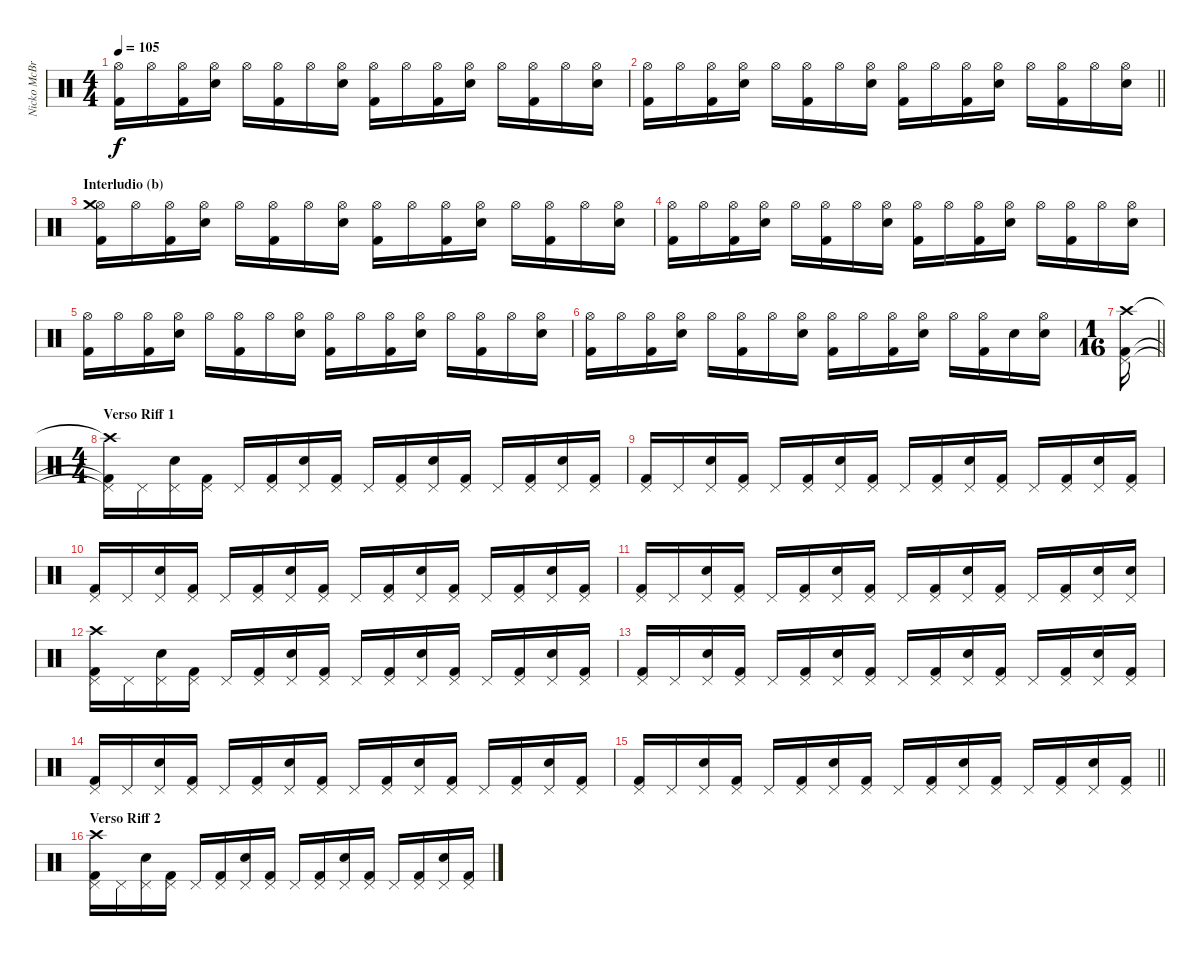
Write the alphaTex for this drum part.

\track ("Nicko McBrain" "Nicko McBr") {instrument percussion}
\staff {score}
\articulation defaults
\ts (4 4)
\tempo 105
\clef neutral
\ks c
("Kick (hit) 2" "Hi-Hat (open)").16{dy f} "Hi-Hat (open)".16 ("Kick (hit) 2" "Hi-Hat (open)").16 ("Snare (hit) 2" "Hi-Hat (open)").16 "Hi-Hat (open)".16 ("Kick (hit) 2" "Hi-Hat (open)").16 "Hi-Hat (open)".16 ("Snare (hit) 2" "Hi-Hat (open)").16 ("Kick (hit) 2" "Hi-Hat (open)").16 "Hi-Hat (open)".16 ("Kick (hit) 2" "Hi-Hat (open)").16 ("Snare (hit) 2" "Hi-Hat (open)").16 "Hi-Hat (open)".16 ("Kick (hit) 2" "Hi-Hat (open)").16 "Hi-Hat (open)".16 ("Snare (hit) 2" "Hi-Hat (open)").16 |
\barLineRight lightlight
("Kick (hit) 2" "Hi-Hat (open)").16 "Hi-Hat (open)".16 ("Kick (hit) 2" "Hi-Hat (open)").16 ("Snare (hit) 2" "Hi-Hat (open)").16 "Hi-Hat (open)".16 ("Kick (hit) 2" "Hi-Hat (open)").16 "Hi-Hat (open)".16 ("Snare (hit) 2" "Hi-Hat (open)").16 ("Kick (hit) 2" "Hi-Hat (open)").16 "Hi-Hat (open)".16 ("Kick (hit) 2" "Hi-Hat (open)").16 ("Snare (hit) 2" "Hi-Hat (open)").16 "Hi-Hat (open)".16 ("Kick (hit) 2" "Hi-Hat (open)").16 "Hi-Hat (open)".16 ("Snare (hit) 2" "Hi-Hat (open)").16 |
\section ("" "Interludio (b)")
("Kick (hit) 2" "Hi-Hat (open)" "Crash medium (hit)").16 "Hi-Hat (open)".16 ("Kick (hit) 2" "Hi-Hat (open)").16 ("Snare (hit) 2" "Hi-Hat (open)").16 "Hi-Hat (open)".16 ("Kick (hit) 2" "Hi-Hat (open)").16 "Hi-Hat (open)".16 ("Snare (hit) 2" "Hi-Hat (open)").16 ("Kick (hit) 2" "Hi-Hat (open)").16 "Hi-Hat (open)".16 ("Kick (hit) 2" "Hi-Hat (open)").16 ("Snare (hit) 2" "Hi-Hat (open)").16 "Hi-Hat (open)".16 ("Kick (hit) 2" "Hi-Hat (open)").16 "Hi-Hat (open)".16 ("Snare (hit) 2" "Hi-Hat (open)").16 |
("Kick (hit) 2" "Hi-Hat (open)").16 "Hi-Hat (open)".16 ("Kick (hit) 2" "Hi-Hat (open)").16 ("Snare (hit) 2" "Hi-Hat (open)").16 "Hi-Hat (open)".16 ("Kick (hit) 2" "Hi-Hat (open)").16 "Hi-Hat (open)".16 ("Snare (hit) 2" "Hi-Hat (open)").16 ("Kick (hit) 2" "Hi-Hat (open)").16 "Hi-Hat (open)".16 ("Kick (hit) 2" "Hi-Hat (open)").16 ("Snare (hit) 2" "Hi-Hat (open)").16 "Hi-Hat (open)".16 ("Kick (hit) 2" "Hi-Hat (open)").16 "Hi-Hat (open)".16 ("Snare (hit) 2" "Hi-Hat (open)").16 |
("Kick (hit) 2" "Hi-Hat (open)").16 "Hi-Hat (open)".16 ("Kick (hit) 2" "Hi-Hat (open)").16 ("Snare (hit) 2" "Hi-Hat (open)").16 "Hi-Hat (open)".16 ("Kick (hit) 2" "Hi-Hat (open)").16 "Hi-Hat (open)".16 ("Snare (hit) 2" "Hi-Hat (open)").16 ("Kick (hit) 2" "Hi-Hat (open)").16 "Hi-Hat (open)".16 ("Kick (hit) 2" "Hi-Hat (open)").16 ("Snare (hit) 2" "Hi-Hat (open)").16 "Hi-Hat (open)".16 ("Kick (hit) 2" "Hi-Hat (open)").16 "Hi-Hat (open)".16 ("Snare (hit) 2" "Hi-Hat (open)").16 |
("Kick (hit) 2" "Hi-Hat (open)").16 "Hi-Hat (open)".16 ("Kick (hit) 2" "Hi-Hat (open)").16 ("Snare (hit) 2" "Hi-Hat (open)").16 "Hi-Hat (open)".16 ("Kick (hit) 2" "Hi-Hat (open)").16 "Hi-Hat (open)".16 ("Snare (hit) 2" "Hi-Hat (open)").16 ("Kick (hit) 2" "Hi-Hat (open)").16 "Hi-Hat (open)".16 ("Kick (hit) 2" "Hi-Hat (open)").16 ("Snare (hit) 2" "Hi-Hat (open)").16 "Hi-Hat (open)".16 ("Kick (hit) 2" "Hi-Hat (open)").16 "Snare (hit) 2".16 ("Snare (hit) 2" "Hi-Hat (open)").16 |
\ts (1 16)
\barLineRight lightlight
("Kick (hit) 2" "Pedal Hi-Hat (hit)" "Crash high (hit)").16 |
\ts (4 4)
\section ("" "Verso Riff 1")
("Kick (hit) 2"{t} "Pedal Hi-Hat (hit)"{t} "Crash high (hit)"{t}).16 "Pedal Hi-Hat (hit)".16 ("Snare (hit) 2" "Pedal Hi-Hat (hit)").16 ("Kick (hit) 2" "Pedal Hi-Hat (hit)").16 "Pedal Hi-Hat (hit)".16 ("Kick (hit) 2" "Pedal Hi-Hat (hit)").16 ("Snare (hit) 2" "Pedal Hi-Hat (hit)").16 ("Kick (hit) 2" "Pedal Hi-Hat (hit)").16 "Pedal Hi-Hat (hit)".16 ("Kick (hit) 2" "Pedal Hi-Hat (hit)").16 ("Snare (hit) 2" "Pedal Hi-Hat (hit)").16 ("Kick (hit) 2" "Pedal Hi-Hat (hit)").16 "Pedal Hi-Hat (hit)".16 ("Kick (hit) 2" "Pedal Hi-Hat (hit)").16 ("Snare (hit) 2" "Pedal Hi-Hat (hit)").16 ("Kick (hit) 2" "Pedal Hi-Hat (hit)").16 |
("Kick (hit) 2" "Pedal Hi-Hat (hit)").16 "Pedal Hi-Hat (hit)".16 ("Snare (hit) 2" "Pedal Hi-Hat (hit)").16 ("Kick (hit) 2" "Pedal Hi-Hat (hit)").16 "Pedal Hi-Hat (hit)".16 ("Kick (hit) 2" "Pedal Hi-Hat (hit)").16 ("Snare (hit) 2" "Pedal Hi-Hat (hit)").16 ("Kick (hit) 2" "Pedal Hi-Hat (hit)").16 "Pedal Hi-Hat (hit)".16 ("Kick (hit) 2" "Pedal Hi-Hat (hit)").16 ("Snare (hit) 2" "Pedal Hi-Hat (hit)").16 ("Kick (hit) 2" "Pedal Hi-Hat (hit)").16 "Pedal Hi-Hat (hit)".16 ("Kick (hit) 2" "Pedal Hi-Hat (hit)").16 ("Snare (hit) 2" "Pedal Hi-Hat (hit)").16 ("Kick (hit) 2" "Pedal Hi-Hat (hit)").16 |
("Kick (hit) 2" "Pedal Hi-Hat (hit)").16 "Pedal Hi-Hat (hit)".16 ("Snare (hit) 2" "Pedal Hi-Hat (hit)").16 ("Kick (hit) 2" "Pedal Hi-Hat (hit)").16 "Pedal Hi-Hat (hit)".16 ("Kick (hit) 2" "Pedal Hi-Hat (hit)").16 ("Snare (hit) 2" "Pedal Hi-Hat (hit)").16 ("Kick (hit) 2" "Pedal Hi-Hat (hit)").16 "Pedal Hi-Hat (hit)".16 ("Kick (hit) 2" "Pedal Hi-Hat (hit)").16 ("Snare (hit) 2" "Pedal Hi-Hat (hit)").16 ("Kick (hit) 2" "Pedal Hi-Hat (hit)").16 "Pedal Hi-Hat (hit)".16 ("Kick (hit) 2" "Pedal Hi-Hat (hit)").16 ("Snare (hit) 2" "Pedal Hi-Hat (hit)").16 ("Kick (hit) 2" "Pedal Hi-Hat (hit)").16 |
("Kick (hit) 2" "Pedal Hi-Hat (hit)").16 "Pedal Hi-Hat (hit)".16 ("Snare (hit) 2" "Pedal Hi-Hat (hit)").16 ("Kick (hit) 2" "Pedal Hi-Hat (hit)").16 "Pedal Hi-Hat (hit)".16 ("Kick (hit) 2" "Pedal Hi-Hat (hit)").16 ("Snare (hit) 2" "Pedal Hi-Hat (hit)").16 ("Kick (hit) 2" "Pedal Hi-Hat (hit)").16 "Pedal Hi-Hat (hit)".16 ("Kick (hit) 2" "Pedal Hi-Hat (hit)").16 ("Snare (hit) 2" "Pedal Hi-Hat (hit)").16 ("Kick (hit) 2" "Pedal Hi-Hat (hit)").16 "Pedal Hi-Hat (hit)".16 ("Kick (hit) 2" "Pedal Hi-Hat (hit)").16 ("Snare (hit) 2" "Pedal Hi-Hat (hit)").16 ("Snare (hit) 2" "Pedal Hi-Hat (hit)").16 |
("Kick (hit) 2" "Pedal Hi-Hat (hit)" "Crash high (hit)").16 "Pedal Hi-Hat (hit)".16 ("Snare (hit) 2" "Pedal Hi-Hat (hit)").16 ("Kick (hit) 2" "Pedal Hi-Hat (hit)").16 "Pedal Hi-Hat (hit)".16 ("Kick (hit) 2" "Pedal Hi-Hat (hit)").16 ("Snare (hit) 2" "Pedal Hi-Hat (hit)").16 ("Kick (hit) 2" "Pedal Hi-Hat (hit)").16 "Pedal Hi-Hat (hit)".16 ("Kick (hit) 2" "Pedal Hi-Hat (hit)").16 ("Snare (hit) 2" "Pedal Hi-Hat (hit)").16 ("Kick (hit) 2" "Pedal Hi-Hat (hit)").16 "Pedal Hi-Hat (hit)".16 ("Kick (hit) 2" "Pedal Hi-Hat (hit)").16 ("Snare (hit) 2" "Pedal Hi-Hat (hit)").16 ("Kick (hit) 2" "Pedal Hi-Hat (hit)").16 |
("Kick (hit) 2" "Pedal Hi-Hat (hit)").16 "Pedal Hi-Hat (hit)".16 ("Snare (hit) 2" "Pedal Hi-Hat (hit)").16 ("Kick (hit) 2" "Pedal Hi-Hat (hit)").16 "Pedal Hi-Hat (hit)".16 ("Kick (hit) 2" "Pedal Hi-Hat (hit)").16 ("Snare (hit) 2" "Pedal Hi-Hat (hit)").16 ("Kick (hit) 2" "Pedal Hi-Hat (hit)").16 "Pedal Hi-Hat (hit)".16 ("Kick (hit) 2" "Pedal Hi-Hat (hit)").16 ("Snare (hit) 2" "Pedal Hi-Hat (hit)").16 ("Kick (hit) 2" "Pedal Hi-Hat (hit)").16 "Pedal Hi-Hat (hit)".16 ("Kick (hit) 2" "Pedal Hi-Hat (hit)").16 ("Snare (hit) 2" "Pedal Hi-Hat (hit)").16 ("Kick (hit) 2" "Pedal Hi-Hat (hit)").16 |
("Kick (hit) 2" "Pedal Hi-Hat (hit)").16 "Pedal Hi-Hat (hit)".16 ("Snare (hit) 2" "Pedal Hi-Hat (hit)").16 ("Kick (hit) 2" "Pedal Hi-Hat (hit)").16 "Pedal Hi-Hat (hit)".16 ("Kick (hit) 2" "Pedal Hi-Hat (hit)").16 ("Snare (hit) 2" "Pedal Hi-Hat (hit)").16 ("Kick (hit) 2" "Pedal Hi-Hat (hit)").16 "Pedal Hi-Hat (hit)".16 ("Kick (hit) 2" "Pedal Hi-Hat (hit)").16 ("Snare (hit) 2" "Pedal Hi-Hat (hit)").16 ("Kick (hit) 2" "Pedal Hi-Hat (hit)").16 "Pedal Hi-Hat (hit)".16 ("Kick (hit) 2" "Pedal Hi-Hat (hit)").16 ("Snare (hit) 2" "Pedal Hi-Hat (hit)").16 ("Kick (hit) 2" "Pedal Hi-Hat (hit)").16 |
\barLineRight lightlight
("Kick (hit) 2" "Pedal Hi-Hat (hit)").16 "Pedal Hi-Hat (hit)".16 ("Snare (hit) 2" "Pedal Hi-Hat (hit)").16 ("Kick (hit) 2" "Pedal Hi-Hat (hit)").16 "Pedal Hi-Hat (hit)".16 ("Kick (hit) 2" "Pedal Hi-Hat (hit)").16 ("Snare (hit) 2" "Pedal Hi-Hat (hit)").16 ("Kick (hit) 2" "Pedal Hi-Hat (hit)").16 "Pedal Hi-Hat (hit)".16 ("Kick (hit) 2" "Pedal Hi-Hat (hit)").16 ("Snare (hit) 2" "Pedal Hi-Hat (hit)").16 ("Kick (hit) 2" "Pedal Hi-Hat (hit)").16 "Pedal Hi-Hat (hit)".16 ("Kick (hit) 2" "Pedal Hi-Hat (hit)").16 ("Snare (hit) 2" "Pedal Hi-Hat (hit)").16 ("Kick (hit) 2" "Pedal Hi-Hat (hit)").16 |
\section ("" "Verso Riff 2")
("Kick (hit) 2" "Pedal Hi-Hat (hit)" "Crash high (hit)").16 "Pedal Hi-Hat (hit)".16 ("Snare (hit) 2" "Pedal Hi-Hat (hit)").16 ("Kick (hit) 2" "Pedal Hi-Hat (hit)").16 "Pedal Hi-Hat (hit)".16 ("Kick (hit) 2" "Pedal Hi-Hat (hit)").16 ("Snare (hit) 2" "Pedal Hi-Hat (hit)").16 ("Kick (hit) 2" "Pedal Hi-Hat (hit)").16 "Pedal Hi-Hat (hit)".16 ("Kick (hit) 2" "Pedal Hi-Hat (hit)").16 ("Snare (hit) 2" "Pedal Hi-Hat (hit)").16 ("Kick (hit) 2" "Pedal Hi-Hat (hit)").16 "Pedal Hi-Hat (hit)".16 ("Kick (hit) 2" "Pedal Hi-Hat (hit)").16 ("Snare (hit) 2" "Pedal Hi-Hat (hit)").16 ("Kick (hit) 2" "Pedal Hi-Hat (hit)").16
